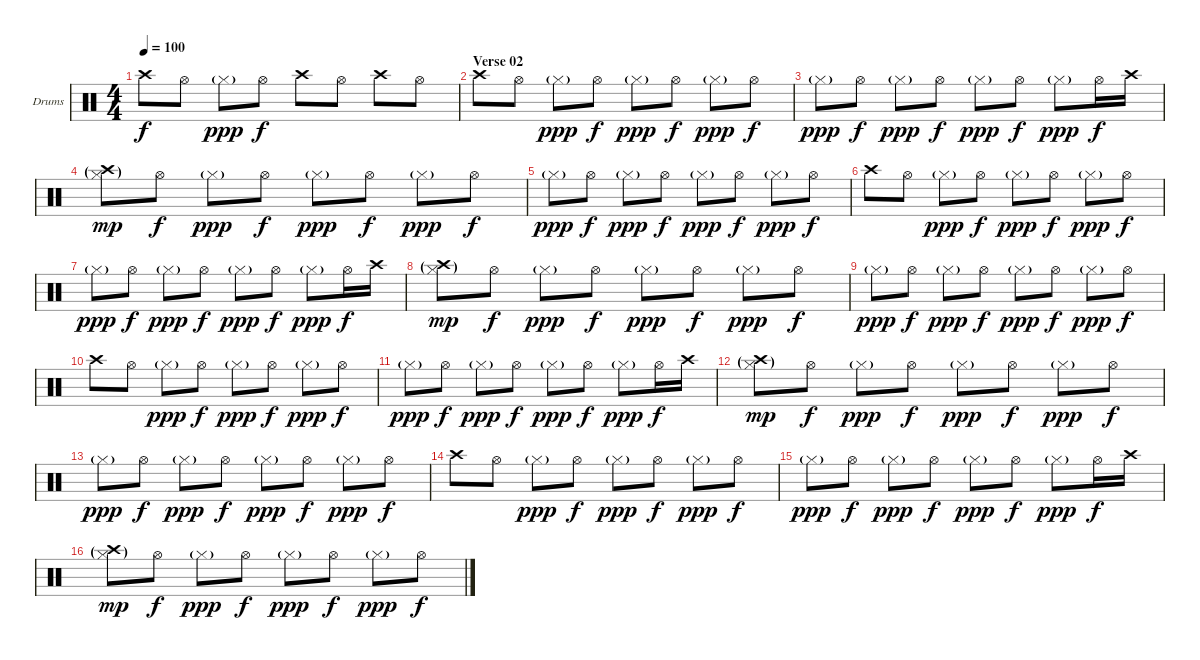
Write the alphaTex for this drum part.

\bracketExtendMode groupsimilarinstruments
\firstSystemTrackNameOrientation horizontal
\otherSystemsTrackNameOrientation horizontal
\track ("Cymbals right" "Drums") {instrument percussion}
\staff {score}
\articulation defaults
\ts (4 4)
\tempo 100
\clef neutral
\ks c "Crash high (hit)".8{dy f} "Hi-Hat (open)".8 "Hi-Hat (closed)"{g}.8{dy ppp} "Hi-Hat (open)".8{dy f} "Crash high (hit)".8 "Hi-Hat (open)".8 "Crash high (hit)".8 "Hi-Hat (open)".8
|
\section ("" "Verse 02")
"Crash high (hit)".8 "Hi-Hat (open)".8 "Hi-Hat (closed)"{g}.8{dy ppp} "Hi-Hat (open)".8{dy f} "Hi-Hat (closed)"{g}.8{dy ppp} "Hi-Hat (open)".8{dy f} "Hi-Hat (closed)"{g}.8{dy ppp} "Hi-Hat (open)".8{dy f} |
"Hi-Hat (closed)"{g}.8{dy ppp} "Hi-Hat (open)".8{dy f} "Hi-Hat (closed)"{g}.8{dy ppp} "Hi-Hat (open)".8{dy f} "Hi-Hat (closed)"{g}.8{dy ppp} "Hi-Hat (open)".8{dy f} "Hi-Hat (closed)"{g}.8{dy ppp} "Hi-Hat (open)".16{dy f} "Crash high (hit)".16 |
("Crash high (hit)"{g} "Hi-Hat (closed)"{g}).8{dy mp} "Hi-Hat (open)".8{dy f} "Hi-Hat (closed)"{g}.8{dy ppp} "Hi-Hat (open)".8{dy f} "Hi-Hat (closed)"{g}.8{dy ppp} "Hi-Hat (open)".8{dy f} "Hi-Hat (closed)"{g}.8{dy ppp} "Hi-Hat (open)".8{dy f} |
"Hi-Hat (closed)"{g}.8{dy ppp} "Hi-Hat (open)".8{dy f} "Hi-Hat (closed)"{g}.8{dy ppp} "Hi-Hat (open)".8{dy f} "Hi-Hat (closed)"{g}.8{dy ppp} "Hi-Hat (open)".8{dy f} "Hi-Hat (closed)"{g}.8{dy ppp} "Hi-Hat (open)".8{dy f} |
"Crash high (hit)".8 "Hi-Hat (open)".8 "Hi-Hat (closed)"{g}.8{dy ppp} "Hi-Hat (open)".8{dy f} "Hi-Hat (closed)"{g}.8{dy ppp} "Hi-Hat (open)".8{dy f} "Hi-Hat (closed)"{g}.8{dy ppp} "Hi-Hat (open)".8{dy f} |
"Hi-Hat (closed)"{g}.8{dy ppp} "Hi-Hat (open)".8{dy f} "Hi-Hat (closed)"{g}.8{dy ppp} "Hi-Hat (open)".8{dy f} "Hi-Hat (closed)"{g}.8{dy ppp} "Hi-Hat (open)".8{dy f} "Hi-Hat (closed)"{g}.8{dy ppp} "Hi-Hat (open)".16{dy f} "Crash high (hit)".16 |
("Crash high (hit)"{g} "Hi-Hat (closed)"{g}).8{dy mp} "Hi-Hat (open)".8{dy f} "Hi-Hat (closed)"{g}.8{dy ppp} "Hi-Hat (open)".8{dy f} "Hi-Hat (closed)"{g}.8{dy ppp} "Hi-Hat (open)".8{dy f} "Hi-Hat (closed)"{g}.8{dy ppp} "Hi-Hat (open)".8{dy f} |
"Hi-Hat (closed)"{g}.8{dy ppp} "Hi-Hat (open)".8{dy f} "Hi-Hat (closed)"{g}.8{dy ppp} "Hi-Hat (open)".8{dy f} "Hi-Hat (closed)"{g}.8{dy ppp} "Hi-Hat (open)".8{dy f} "Hi-Hat (closed)"{g}.8{dy ppp} "Hi-Hat (open)".8{dy f} |
"Crash high (hit)".8 "Hi-Hat (open)".8 "Hi-Hat (closed)"{g}.8{dy ppp} "Hi-Hat (open)".8{dy f} "Hi-Hat (closed)"{g}.8{dy ppp} "Hi-Hat (open)".8{dy f} "Hi-Hat (closed)"{g}.8{dy ppp} "Hi-Hat (open)".8{dy f} |
"Hi-Hat (closed)"{g}.8{dy ppp} "Hi-Hat (open)".8{dy f} "Hi-Hat (closed)"{g}.8{dy ppp} "Hi-Hat (open)".8{dy f} "Hi-Hat (closed)"{g}.8{dy ppp} "Hi-Hat (open)".8{dy f} "Hi-Hat (closed)"{g}.8{dy ppp} "Hi-Hat (open)".16{dy f} "Crash high (hit)".16 |
("Crash high (hit)"{g} "Hi-Hat (closed)"{g}).8{dy mp} "Hi-Hat (open)".8{dy f} "Hi-Hat (closed)"{g}.8{dy ppp} "Hi-Hat (open)".8{dy f} "Hi-Hat (closed)"{g}.8{dy ppp} "Hi-Hat (open)".8{dy f} "Hi-Hat (closed)"{g}.8{dy ppp} "Hi-Hat (open)".8{dy f} |
"Hi-Hat (closed)"{g}.8{dy ppp} "Hi-Hat (open)".8{dy f} "Hi-Hat (closed)"{g}.8{dy ppp} "Hi-Hat (open)".8{dy f} "Hi-Hat (closed)"{g}.8{dy ppp} "Hi-Hat (open)".8{dy f} "Hi-Hat (closed)"{g}.8{dy ppp} "Hi-Hat (open)".8{dy f} |
"Crash high (hit)".8 "Hi-Hat (open)".8 "Hi-Hat (closed)"{g}.8{dy ppp} "Hi-Hat (open)".8{dy f} "Hi-Hat (closed)"{g}.8{dy ppp} "Hi-Hat (open)".8{dy f} "Hi-Hat (closed)"{g}.8{dy ppp} "Hi-Hat (open)".8{dy f} |
"Hi-Hat (closed)"{g}.8{dy ppp} "Hi-Hat (open)".8{dy f} "Hi-Hat (closed)"{g}.8{dy ppp} "Hi-Hat (open)".8{dy f} "Hi-Hat (closed)"{g}.8{dy ppp} "Hi-Hat (open)".8{dy f} "Hi-Hat (closed)"{g}.8{dy ppp} "Hi-Hat (open)".16{dy f} "Crash high (hit)".16 |
("Crash high (hit)"{g} "Hi-Hat (closed)"{g}).8{dy mp} "Hi-Hat (open)".8{dy f} "Hi-Hat (closed)"{g}.8{dy ppp} "Hi-Hat (open)".8{dy f} "Hi-Hat (closed)"{g}.8{dy ppp} "Hi-Hat (open)".8{dy f} "Hi-Hat (closed)"{g}.8{dy ppp} "Hi-Hat (open)".8{dy f}
